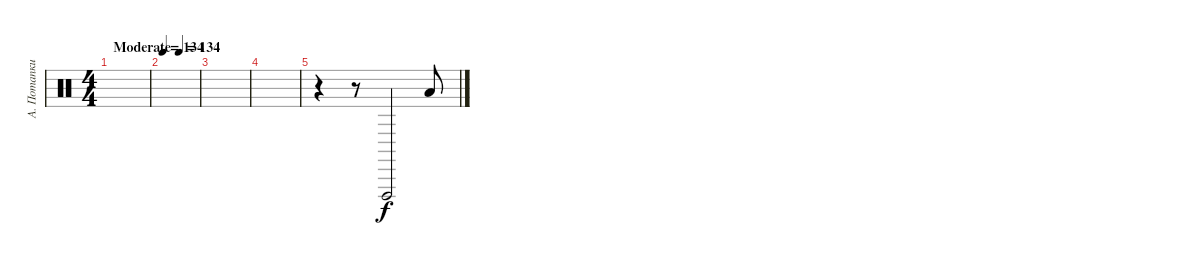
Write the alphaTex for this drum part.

\track ("А. Потапкин" "А. Потапки") {instrument percussion}
\staff {score}
\articulation defaults
\ts (4 4)
\tempo (134 "Moderate")
\clef neutral
\ks c
|
\tempo 134
|
|
|
r.4 r.8 "Vibraslap (hit)".2 "Low Tom (hit)".8
